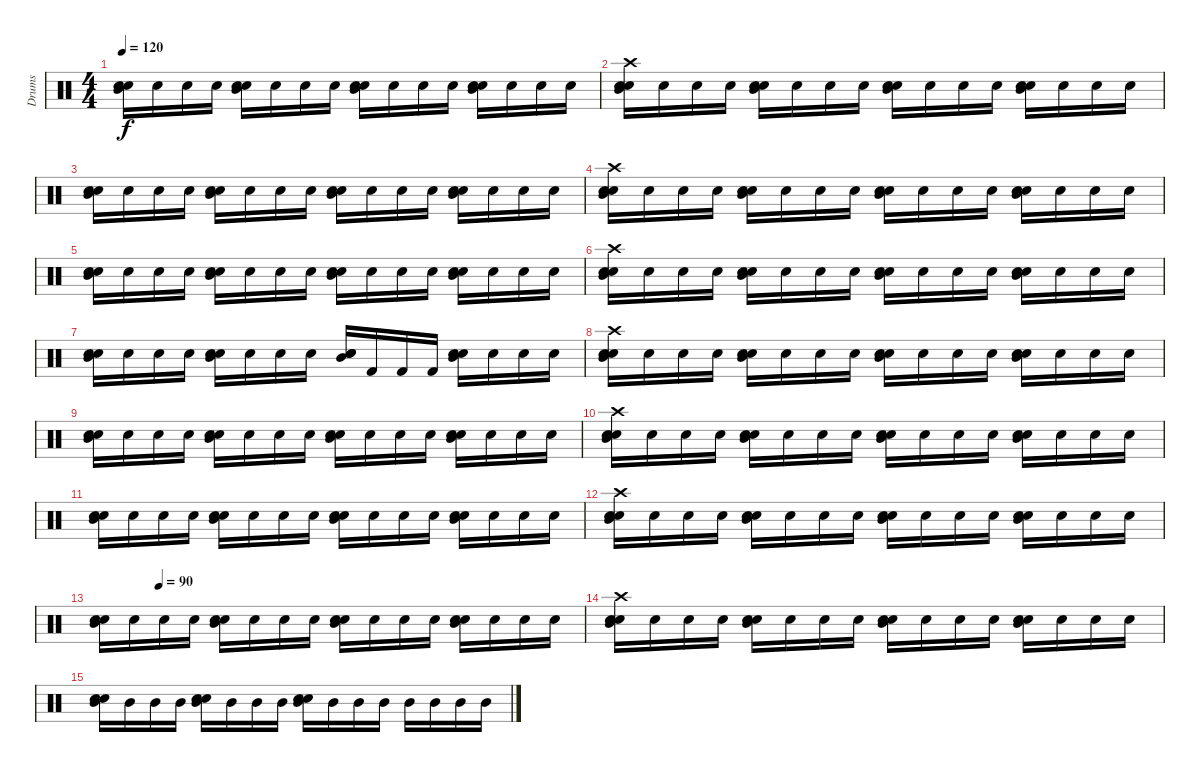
\track ("Drums" "Drums") {instrument percussion}
\staff {score}
\articulation defaults
\ts (4 4)
\tempo 120
\clef neutral
\ks c
("Electric Snare (hit)" "Snare (hit) 2" "Mid Tom (hit)").16{dy f} "Snare (hit) 2".16 "Snare (hit) 2".16 "Snare (hit) 2".16 ("Mid Tom (hit)" "Snare (hit) 2" "Electric Snare (hit)").16 "Snare (hit) 2".16 "Snare (hit) 2".16 "Snare (hit) 2".16 ("Mid Tom (hit)" "Snare (hit) 2" "Electric Snare (hit)").16 "Snare (hit) 2".16 "Snare (hit) 2".16 "Snare (hit) 2".16 ("Mid Tom (hit)" "Snare (hit) 2" "Electric Snare (hit)").16 "Snare (hit) 2".16 "Snare (hit) 2".16 "Snare (hit) 2".16 |
("Electric Snare (hit)" "Snare (hit) 2" "Mid Tom (hit)" "Crash high (hit)").16 "Snare (hit) 2".16 "Snare (hit) 2".16 "Snare (hit) 2".16 ("Mid Tom (hit)" "Snare (hit) 2" "Electric Snare (hit)").16 "Snare (hit) 2".16 "Snare (hit) 2".16 "Snare (hit) 2".16 ("Mid Tom (hit)" "Snare (hit) 2" "Electric Snare (hit)").16 "Snare (hit) 2".16 "Snare (hit) 2".16 "Snare (hit) 2".16 ("Mid Tom (hit)" "Snare (hit) 2" "Electric Snare (hit)").16 "Snare (hit) 2".16 "Snare (hit) 2".16 "Snare (hit) 2".16 |
("Electric Snare (hit)" "Snare (hit) 2" "Mid Tom (hit)").16 "Snare (hit) 2".16 "Snare (hit) 2".16 "Snare (hit) 2".16 ("Mid Tom (hit)" "Snare (hit) 2" "Electric Snare (hit)").16 "Snare (hit) 2".16 "Snare (hit) 2".16 "Snare (hit) 2".16 ("Mid Tom (hit)" "Snare (hit) 2" "Electric Snare (hit)").16 "Snare (hit) 2".16 "Snare (hit) 2".16 "Snare (hit) 2".16 ("Mid Tom (hit)" "Snare (hit) 2" "Electric Snare (hit)").16 "Snare (hit) 2".16 "Snare (hit) 2".16 "Snare (hit) 2".16 |
("Electric Snare (hit)" "Snare (hit) 2" "Mid Tom (hit)" "Crash high (hit)").16 "Snare (hit) 2".16 "Snare (hit) 2".16 "Snare (hit) 2".16 ("Mid Tom (hit)" "Snare (hit) 2" "Electric Snare (hit)").16 "Snare (hit) 2".16 "Snare (hit) 2".16 "Snare (hit) 2".16 ("Mid Tom (hit)" "Snare (hit) 2" "Electric Snare (hit)").16 "Snare (hit) 2".16 "Snare (hit) 2".16 "Snare (hit) 2".16 ("Mid Tom (hit)" "Snare (hit) 2" "Electric Snare (hit)").16 "Snare (hit) 2".16 "Snare (hit) 2".16 "Snare (hit) 2".16 |
("Electric Snare (hit)" "Snare (hit) 2" "Mid Tom (hit)").16 "Snare (hit) 2".16 "Snare (hit) 2".16 "Snare (hit) 2".16 ("Mid Tom (hit)" "Snare (hit) 2" "Electric Snare (hit)").16 "Snare (hit) 2".16 "Snare (hit) 2".16 "Snare (hit) 2".16 ("Mid Tom (hit)" "Snare (hit) 2" "Electric Snare (hit)").16 "Snare (hit) 2".16 "Snare (hit) 2".16 "Snare (hit) 2".16 ("Mid Tom (hit)" "Snare (hit) 2" "Electric Snare (hit)").16 "Snare (hit) 2".16 "Snare (hit) 2".16 "Snare (hit) 2".16 |
("Electric Snare (hit)" "Snare (hit) 2" "Mid Tom (hit)" "Crash high (hit)").16 "Snare (hit) 2".16 "Snare (hit) 2".16 "Snare (hit) 2".16 ("Mid Tom (hit)" "Snare (hit) 2" "Electric Snare (hit)").16 "Snare (hit) 2".16 "Snare (hit) 2".16 "Snare (hit) 2".16 ("Mid Tom (hit)" "Snare (hit) 2" "Electric Snare (hit)").16 "Snare (hit) 2".16 "Snare (hit) 2".16 "Snare (hit) 2".16 ("Mid Tom (hit)" "Snare (hit) 2" "Electric Snare (hit)").16 "Snare (hit) 2".16 "Snare (hit) 2".16 "Snare (hit) 2".16 |
("Electric Snare (hit)" "Snare (hit) 2" "Mid Tom (hit)").16 "Snare (hit) 2".16 "Snare (hit) 2".16 "Snare (hit) 2".16 ("Mid Tom (hit)" "Snare (hit) 2" "Electric Snare (hit)").16 "Snare (hit) 2".16 "Snare (hit) 2".16 "Snare (hit) 2".16 ("Mid Tom (hit)" "Snare (hit) 2" "Electric Snare (hit)").16 "Kick (hit) 2".16 "Kick (hit) 2".16 "Kick (hit) 2".16 ("Mid Tom (hit)" "Snare (hit) 2" "Electric Snare (hit)").16 "Electric Snare (hit)".16 "Electric Snare (hit)".16 "Electric Snare (hit)".16 |
("Electric Snare (hit)" "Snare (hit) 2" "Mid Tom (hit)" "Crash high (hit)").16 "Snare (hit) 2".16 "Snare (hit) 2".16 "Snare (hit) 2".16 ("Mid Tom (hit)" "Snare (hit) 2" "Electric Snare (hit)").16 "Snare (hit) 2".16 "Snare (hit) 2".16 "Snare (hit) 2".16 ("Mid Tom (hit)" "Snare (hit) 2" "Electric Snare (hit)").16 "Snare (hit) 2".16 "Snare (hit) 2".16 "Snare (hit) 2".16 ("Mid Tom (hit)" "Snare (hit) 2" "Electric Snare (hit)").16 "Snare (hit) 2".16 "Snare (hit) 2".16 "Snare (hit) 2".16 |
("Electric Snare (hit)" "Snare (hit) 2" "Mid Tom (hit)").16 "Snare (hit) 2".16 "Snare (hit) 2".16 "Snare (hit) 2".16 ("Mid Tom (hit)" "Snare (hit) 2" "Electric Snare (hit)").16 "Snare (hit) 2".16 "Snare (hit) 2".16 "Snare (hit) 2".16 ("Mid Tom (hit)" "Snare (hit) 2" "Electric Snare (hit)").16 "Snare (hit) 2".16 "Snare (hit) 2".16 "Snare (hit) 2".16 ("Mid Tom (hit)" "Snare (hit) 2" "Electric Snare (hit)").16 "Snare (hit) 2".16 "Snare (hit) 2".16 "Snare (hit) 2".16 |
("Electric Snare (hit)" "Snare (hit) 2" "Mid Tom (hit)" "Crash high (hit)").16 "Snare (hit) 2".16 "Snare (hit) 2".16 "Snare (hit) 2".16 ("Mid Tom (hit)" "Snare (hit) 2" "Electric Snare (hit)").16 "Snare (hit) 2".16 "Snare (hit) 2".16 "Snare (hit) 2".16 ("Mid Tom (hit)" "Snare (hit) 2" "Electric Snare (hit)").16 "Snare (hit) 2".16 "Snare (hit) 2".16 "Snare (hit) 2".16 ("Mid Tom (hit)" "Snare (hit) 2" "Electric Snare (hit)").16 "Snare (hit) 2".16 "Snare (hit) 2".16 "Snare (hit) 2".16 |
("Electric Snare (hit)" "Snare (hit) 2" "Mid Tom (hit)").16 "Snare (hit) 2".16 "Snare (hit) 2".16 "Snare (hit) 2".16 ("Mid Tom (hit)" "Snare (hit) 2" "Electric Snare (hit)").16 "Snare (hit) 2".16 "Snare (hit) 2".16 "Snare (hit) 2".16 ("Mid Tom (hit)" "Snare (hit) 2" "Electric Snare (hit)").16 "Snare (hit) 2".16 "Snare (hit) 2".16 "Snare (hit) 2".16 ("Mid Tom (hit)" "Snare (hit) 2" "Electric Snare (hit)").16 "Snare (hit) 2".16 "Snare (hit) 2".16 "Snare (hit) 2".16 |
("Electric Snare (hit)" "Snare (hit) 2" "Mid Tom (hit)" "Crash high (hit)").16 "Snare (hit) 2".16 "Snare (hit) 2".16 "Snare (hit) 2".16 ("Mid Tom (hit)" "Snare (hit) 2" "Electric Snare (hit)").16 "Snare (hit) 2".16 "Snare (hit) 2".16 "Snare (hit) 2".16 ("Mid Tom (hit)" "Snare (hit) 2" "Electric Snare (hit)").16 "Snare (hit) 2".16 "Snare (hit) 2".16 "Snare (hit) 2".16 ("Mid Tom (hit)" "Snare (hit) 2" "Electric Snare (hit)").16 "Snare (hit) 2".16 "Snare (hit) 2".16 "Snare (hit) 2".16 |
\tempo (90 0.125)
("Electric Snare (hit)" "Snare (hit) 2" "Mid Tom (hit)").16 "Snare (hit) 2".16 "Snare (hit) 2".16 "Snare (hit) 2".16 ("Mid Tom (hit)" "Snare (hit) 2" "Electric Snare (hit)").16 "Snare (hit) 2".16 "Snare (hit) 2".16 "Snare (hit) 2".16 ("Mid Tom (hit)" "Snare (hit) 2" "Electric Snare (hit)").16 "Snare (hit) 2".16 "Snare (hit) 2".16 "Snare (hit) 2".16 ("Mid Tom (hit)" "Snare (hit) 2" "Electric Snare (hit)").16 "Snare (hit) 2".16 "Snare (hit) 2".16 "Snare (hit) 2".16 |
("Electric Snare (hit)" "Snare (hit) 2" "Mid Tom (hit)" "Crash high (hit)").16 "Snare (hit) 2".16 "Snare (hit) 2".16 "Snare (hit) 2".16 ("Mid Tom (hit)" "Snare (hit) 2" "Electric Snare (hit)").16 "Snare (hit) 2".16 "Snare (hit) 2".16 "Snare (hit) 2".16 ("Mid Tom (hit)" "Snare (hit) 2" "Electric Snare (hit)").16 "Snare (hit) 2".16 "Snare (hit) 2".16 "Snare (hit) 2".16 ("Mid Tom (hit)" "Snare (hit) 2" "Electric Snare (hit)").16 "Snare (hit) 2".16 "Snare (hit) 2".16 "Snare (hit) 2".16 |
("Electric Snare (hit)" "Snare (hit) 2" "Mid Tom (hit)").16 "Mid Tom (hit)".16 "Mid Tom (hit)".16 "Mid Tom (hit)".16 ("Mid Tom (hit)" "Snare (hit) 2" "Electric Snare (hit)").16 "Mid Tom (hit)".16 "Mid Tom (hit)".16 "Mid Tom (hit)".16 ("Mid Tom (hit)" "Snare (hit) 2" "Electric Snare (hit)").16 "Mid Tom (hit)".16 "Mid Tom (hit)".16 "Mid Tom (hit)".16 "Mid Tom (hit)".16 "Mid Tom (hit)".16 "Mid Tom (hit)".16 "Mid Tom (hit)".16
